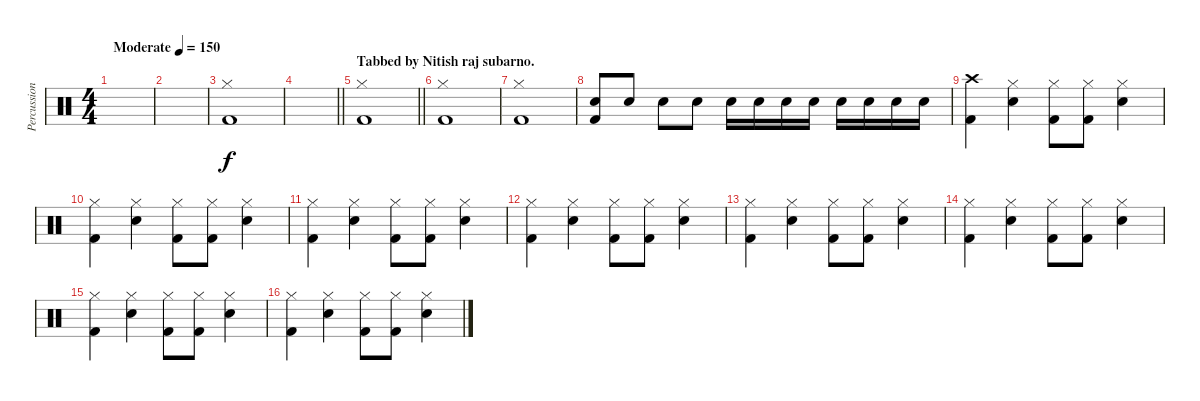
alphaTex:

\track ("Percussion" "Percussion") {instrument percussion}
\staff {score}
\articulation defaults
\ts (4 4)
\tempo (150 "Moderate")
\clef neutral
\ks c
|
|
("Hi-Hat (closed)" "Kick (hit) 2").1 |
\barLineRight lightlight
|
\section ("" "Tabbed by Nitish raj subarno.")
\barLineRight lightlight
("Hi-Hat (closed)" "Kick (hit) 2").1 |
\section ("" "")
("Hi-Hat (closed)" "Kick (hit) 2").1 |
("Hi-Hat (closed)" "Kick (hit) 2").1 |
("Kick (hit) 2" "Electric Snare (hit)").8 "Electric Snare (hit)".8 "Electric Snare (hit)".8 "Electric Snare (hit)".8 "Electric Snare (hit)".16 "Electric Snare (hit)".16 "Electric Snare (hit)".16 "Electric Snare (hit)".16 "Electric Snare (hit)".16 "Electric Snare (hit)".16 "Electric Snare (hit)".16 "Electric Snare (hit)".16 |
("Crash high (hit)" "Kick (hit) 2").4 ("Hi-Hat (closed)" "Electric Snare (hit)").4 ("Hi-Hat (closed)" "Kick (hit) 2").8 ("Hi-Hat (closed)" "Kick (hit) 2").8 ("Hi-Hat (closed)" "Electric Snare (hit)").4 |
("Hi-Hat (closed)" "Kick (hit) 2").4 ("Hi-Hat (closed)" "Electric Snare (hit)").4 ("Hi-Hat (closed)" "Kick (hit) 2").8 ("Hi-Hat (closed)" "Kick (hit) 2").8 ("Hi-Hat (closed)" "Electric Snare (hit)").4 |
("Hi-Hat (closed)" "Kick (hit) 2").4 ("Hi-Hat (closed)" "Electric Snare (hit)").4 ("Hi-Hat (closed)" "Kick (hit) 2").8 ("Hi-Hat (closed)" "Kick (hit) 2").8 ("Hi-Hat (closed)" "Electric Snare (hit)").4 |
("Hi-Hat (closed)" "Kick (hit) 2").4 ("Hi-Hat (closed)" "Electric Snare (hit)").4 ("Hi-Hat (closed)" "Kick (hit) 2").8 ("Hi-Hat (closed)" "Kick (hit) 2").8 ("Hi-Hat (closed)" "Electric Snare (hit)").4 |
("Hi-Hat (closed)" "Kick (hit) 2").4 ("Hi-Hat (closed)" "Electric Snare (hit)").4 ("Hi-Hat (closed)" "Kick (hit) 2").8 ("Hi-Hat (closed)" "Kick (hit) 2").8 ("Hi-Hat (closed)" "Electric Snare (hit)").4 |
("Hi-Hat (closed)" "Kick (hit) 2").4 ("Hi-Hat (closed)" "Electric Snare (hit)").4 ("Hi-Hat (closed)" "Kick (hit) 2").8 ("Hi-Hat (closed)" "Kick (hit) 2").8 ("Hi-Hat (closed)" "Electric Snare (hit)").4 |
("Hi-Hat (closed)" "Kick (hit) 2").4 ("Hi-Hat (closed)" "Electric Snare (hit)").4 ("Hi-Hat (closed)" "Kick (hit) 2").8 ("Hi-Hat (closed)" "Kick (hit) 2").8 ("Hi-Hat (closed)" "Electric Snare (hit)").4 |
("Hi-Hat (closed)" "Kick (hit) 2").4 ("Hi-Hat (closed)" "Electric Snare (hit)").4 ("Hi-Hat (closed)" "Kick (hit) 2").8 ("Hi-Hat (closed)" "Kick (hit) 2").8 ("Hi-Hat (closed)" "Electric Snare (hit)").4
